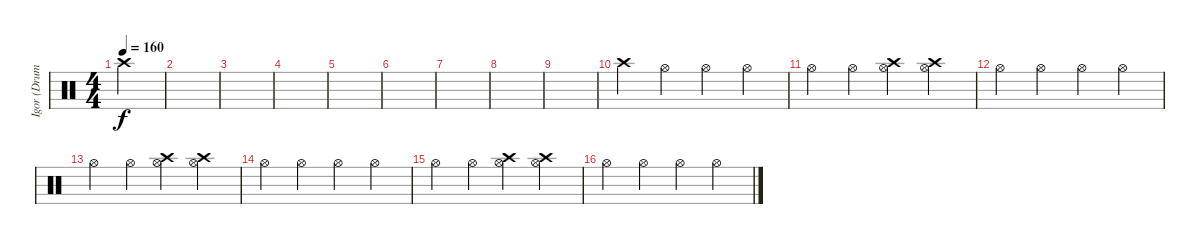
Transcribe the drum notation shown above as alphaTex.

\track ("Igor (Drum - Char & Cymb)" "Igor (Drum") {instrument percussion}
\staff {score}
\articulation defaults
\ts (4 4)
\tempo 160
\clef neutral
\ks c "Crash high (hit)".4{dy f}
|
|
|
|
|
|
|
|
|
"Crash high (hit)".4 "Hi-Hat (open)".4 "Hi-Hat (open)".4 "Hi-Hat (open)".4 |
"Hi-Hat (open)".4 "Hi-Hat (open)".4 ("Crash high (hit)" "Hi-Hat (open)").4 ("Crash high (hit)" "Hi-Hat (open)").4 |
"Hi-Hat (open)".4 "Hi-Hat (open)".4 "Hi-Hat (open)".4 "Hi-Hat (open)".4 |
"Hi-Hat (open)".4 "Hi-Hat (open)".4 ("Crash high (hit)" "Hi-Hat (open)").4 ("Crash high (hit)" "Hi-Hat (open)").4 |
"Hi-Hat (open)".4 "Hi-Hat (open)".4 "Hi-Hat (open)".4 "Hi-Hat (open)".4 |
"Hi-Hat (open)".4 "Hi-Hat (open)".4 ("Crash high (hit)" "Hi-Hat (open)").4 ("Crash high (hit)" "Hi-Hat (open)").4 |
"Hi-Hat (open)".4 "Hi-Hat (open)".4 "Hi-Hat (open)".4 "Hi-Hat (open)".4
